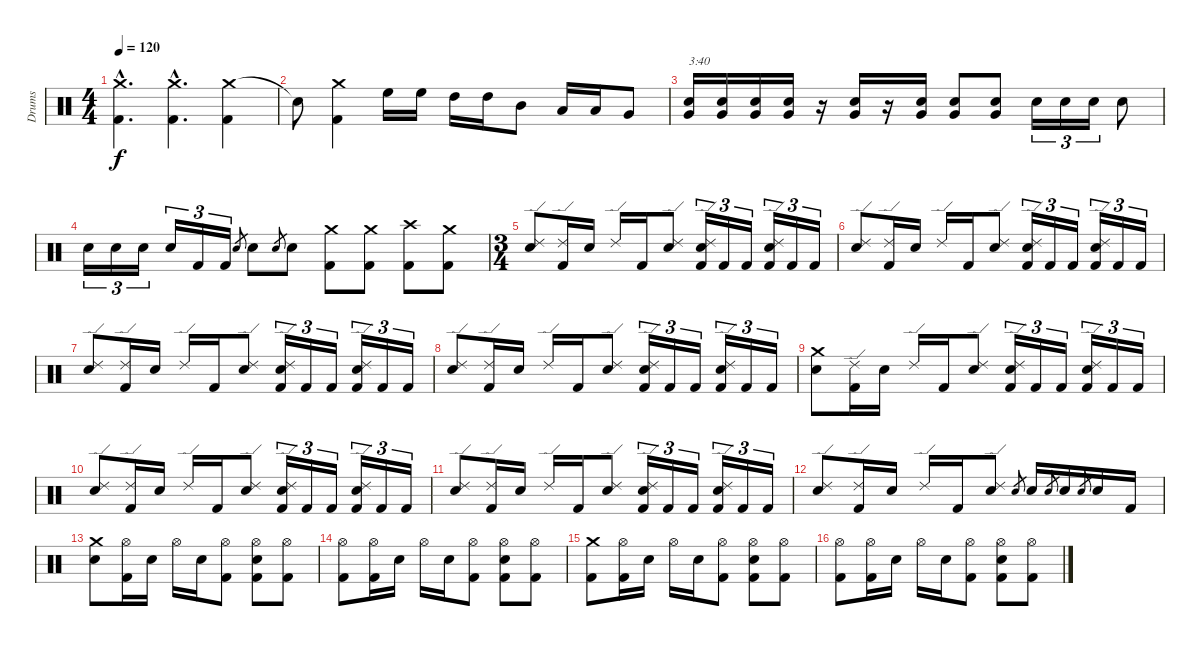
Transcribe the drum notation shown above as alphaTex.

\track ("Drums" "Drums") {instrument percussion}
\staff {score}
\articulation defaults
\ts (4 4)
\tempo 120
\clef neutral
\ks c
("Crash medium (hit)"{hac} "Kick (hit) 2"{hac}).4{d dy f} ("Crash medium (hit)"{hac} "Kick (hit) 2"{hac}).4{d} ("Crash medium (hit)" "Kick (hit) 2").4 |
"Snare (hit)"{t}.8 ("Crash medium (hit)" "Kick (hit) 2").4 "High Floor Tom (hit)".16 "High Floor Tom (hit)".16 "High Tom (hit)".16 "High Tom (hit)".16 "Mid Tom (hit)".8 "Low Tom (hit)".16 "Low Tom (hit)".16 "Very Low Tom (hit)".8 |
("Very Low Tom (hit)" "Snare (hit) 2").16{txt "3:40"} ("Very Low Tom (hit)" "Snare (hit) 2").16 ("Very Low Tom (hit)" "Snare (hit) 2").16 ("Very Low Tom (hit)" "Snare (hit) 2").16 r.16 ("Very Low Tom (hit)" "Snare (hit) 2").16 r.16 ("Very Low Tom (hit)" "Snare (hit) 2").16 ("Very Low Tom (hit)" "Snare (hit) 2").8 ("Very Low Tom (hit)" "Snare (hit) 2").8 "Snare (hit) 2".16{tu (3 2)} "Snare (hit) 2".16{tu (3 2)} "Snare (hit) 2".16{tu (3 2)} "Snare (hit) 2".8 |
"Snare (hit) 2".16{tu (3 2)} "Snare (hit) 2".16{tu (3 2)} "Snare (hit) 2".16{tu (3 2)} "Snare (hit) 2".16{tu (3 2)} "Kick (hit) 2".16{tu (3 2)} "Kick (hit) 2".16{tu (3 2)} "Snare (hit) 2".8{gr} "Snare (hit) 2".8 "Snare (hit) 2".8{gr} "Snare (hit) 2".8 ("Crash medium (hit)" "Kick (hit) 2").8 ("Crash medium (hit)" "Kick (hit) 2").8 ("Crash high (hit)" "Kick (hit) 2").8 ("Crash medium (hit)" "Kick (hit) 2").8 |
\ts (3 4)
("Ride (edge) 2" "Snare (hit) 2").8 ("Ride (edge) 2" "Kick (hit) 2").16 "Snare (hit) 2".16 "Ride (edge) 2".16 "Kick (hit) 2".16 ("Ride (edge) 2" "Snare (hit) 2").8 ("Ride (edge) 2" "Snare (hit) 2" "Kick (hit) 2").16{tu (3 2)} "Kick (hit) 2".16{tu (3 2)} "Kick (hit) 2".16{tu (3 2)} ("Ride (edge) 2" "Snare (hit) 2" "Kick (hit) 2").16{tu (3 2)} "Kick (hit) 2".16{tu (3 2)} "Kick (hit) 2".16{tu (3 2)} |
("Ride (edge) 2" "Snare (hit) 2").8 ("Ride (edge) 2" "Kick (hit) 2").16 "Snare (hit) 2".16 "Ride (edge) 2".16 "Kick (hit) 2".16 ("Ride (edge) 2" "Snare (hit) 2").8 ("Ride (edge) 2" "Snare (hit) 2" "Kick (hit) 2").16{tu (3 2)} "Kick (hit) 2".16{tu (3 2)} "Kick (hit) 2".16{tu (3 2)} ("Ride (edge) 2" "Snare (hit) 2" "Kick (hit) 2").16{tu (3 2)} "Kick (hit) 2".16{tu (3 2)} "Kick (hit) 2".16{tu (3 2)} |
("Ride (edge) 2" "Snare (hit) 2").8 ("Ride (edge) 2" "Kick (hit) 2").16 "Snare (hit) 2".16 "Ride (edge) 2".16 "Kick (hit) 2".16 ("Ride (edge) 2" "Snare (hit) 2").8 ("Ride (edge) 2" "Snare (hit) 2" "Kick (hit) 2").16{tu (3 2)} "Kick (hit) 2".16{tu (3 2)} "Kick (hit) 2".16{tu (3 2)} ("Ride (edge) 2" "Snare (hit) 2" "Kick (hit) 2").16{tu (3 2)} "Kick (hit) 2".16{tu (3 2)} "Kick (hit) 2".16{tu (3 2)} |
("Ride (edge) 2" "Snare (hit) 2").8 ("Ride (edge) 2" "Kick (hit) 2").16 "Snare (hit) 2".16 "Ride (edge) 2".16 "Kick (hit) 2".16 ("Ride (edge) 2" "Snare (hit) 2").8 ("Ride (edge) 2" "Snare (hit) 2" "Kick (hit) 2").16{tu (3 2)} "Kick (hit) 2".16{tu (3 2)} "Kick (hit) 2".16{tu (3 2)} ("Ride (edge) 2" "Snare (hit) 2" "Kick (hit) 2").16{tu (3 2)} "Kick (hit) 2".16{tu (3 2)} "Kick (hit) 2".16{tu (3 2)} |
("Crash medium (hit)" "Snare (hit) 2").8 ("Ride (edge) 2" "Kick (hit) 2").16 "Snare (hit) 2".16 "Ride (edge) 2".16 "Kick (hit) 2".16 ("Ride (edge) 2" "Snare (hit) 2").8 ("Ride (edge) 2" "Snare (hit) 2" "Kick (hit) 2").16{tu (3 2)} "Kick (hit) 2".16{tu (3 2)} "Kick (hit) 2".16{tu (3 2)} ("Ride (edge) 2" "Snare (hit) 2" "Kick (hit) 2").16{tu (3 2)} "Kick (hit) 2".16{tu (3 2)} "Kick (hit) 2".16{tu (3 2)} |
("Ride (edge) 2" "Snare (hit) 2").8 ("Ride (edge) 2" "Kick (hit) 2").16 "Snare (hit) 2".16 "Ride (edge) 2".16 "Kick (hit) 2".16 ("Ride (edge) 2" "Snare (hit) 2").8 ("Ride (edge) 2" "Snare (hit) 2" "Kick (hit) 2").16{tu (3 2)} "Kick (hit) 2".16{tu (3 2)} "Kick (hit) 2".16{tu (3 2)} ("Ride (edge) 2" "Snare (hit) 2" "Kick (hit) 2").16{tu (3 2)} "Kick (hit) 2".16{tu (3 2)} "Kick (hit) 2".16{tu (3 2)} |
("Ride (edge) 2" "Snare (hit) 2").8 ("Ride (edge) 2" "Kick (hit) 2").16 "Snare (hit) 2".16 "Ride (edge) 2".16 "Kick (hit) 2".16 ("Ride (edge) 2" "Snare (hit) 2").8 ("Ride (edge) 2" "Snare (hit) 2" "Kick (hit) 2").16{tu (3 2)} "Kick (hit) 2".16{tu (3 2)} "Kick (hit) 2".16{tu (3 2)} ("Ride (edge) 2" "Snare (hit) 2" "Kick (hit) 2").16{tu (3 2)} "Kick (hit) 2".16{tu (3 2)} "Kick (hit) 2".16{tu (3 2)} |
("Ride (edge) 2" "Snare (hit) 2").8 ("Ride (edge) 2" "Kick (hit) 2").16 "Snare (hit) 2".16 "Ride (edge) 2".16 "Kick (hit) 2".16 ("Ride (edge) 2" "Snare (hit) 2").8 "Snare (hit) 2".8{gr} "Snare (hit) 2".16 "Snare (hit) 2".8{gr} "Snare (hit) 2".16 "Snare (hit) 2".8{gr} "Snare (hit) 2".16 "Kick (hit) 2".16 |
("Crash medium (hit)" "Snare (hit) 2").8 ("Hi-Hat (open)" "Kick (hit) 2").16 "Snare (hit) 2".16 "Hi-Hat (open)".16 "Snare (hit) 2".16 ("Hi-Hat (open)" "Kick (hit) 2").8 ("Hi-Hat (open)" "Snare (hit) 2" "Kick (hit) 2").8 ("Hi-Hat (open)" "Kick (hit) 2").8 |
("Hi-Hat (open)" "Kick (hit) 2").8 ("Hi-Hat (open)" "Kick (hit) 2").16 "Snare (hit) 2".16 "Hi-Hat (open)".16 "Snare (hit) 2".16 ("Hi-Hat (open)" "Kick (hit) 2").8 ("Hi-Hat (open)" "Snare (hit) 2" "Kick (hit) 2").8 ("Hi-Hat (open)" "Kick (hit) 2").8 |
("Crash medium (hit)" "Kick (hit) 2").8 ("Hi-Hat (open)" "Kick (hit) 2").16 "Snare (hit) 2".16 "Hi-Hat (open)".16 "Snare (hit) 2".16 ("Hi-Hat (open)" "Kick (hit) 2").8 ("Hi-Hat (open)" "Snare (hit) 2" "Kick (hit) 2").8 ("Hi-Hat (open)" "Kick (hit) 2").8 |
("Hi-Hat (open)" "Kick (hit) 2").8 ("Hi-Hat (open)" "Kick (hit) 2").16 "Snare (hit) 2".16 "Hi-Hat (open)".16 "Snare (hit) 2".16 ("Hi-Hat (open)" "Kick (hit) 2").8 ("Hi-Hat (open)" "Snare (hit) 2" "Kick (hit) 2").8 ("Hi-Hat (open)" "Kick (hit) 2").8
